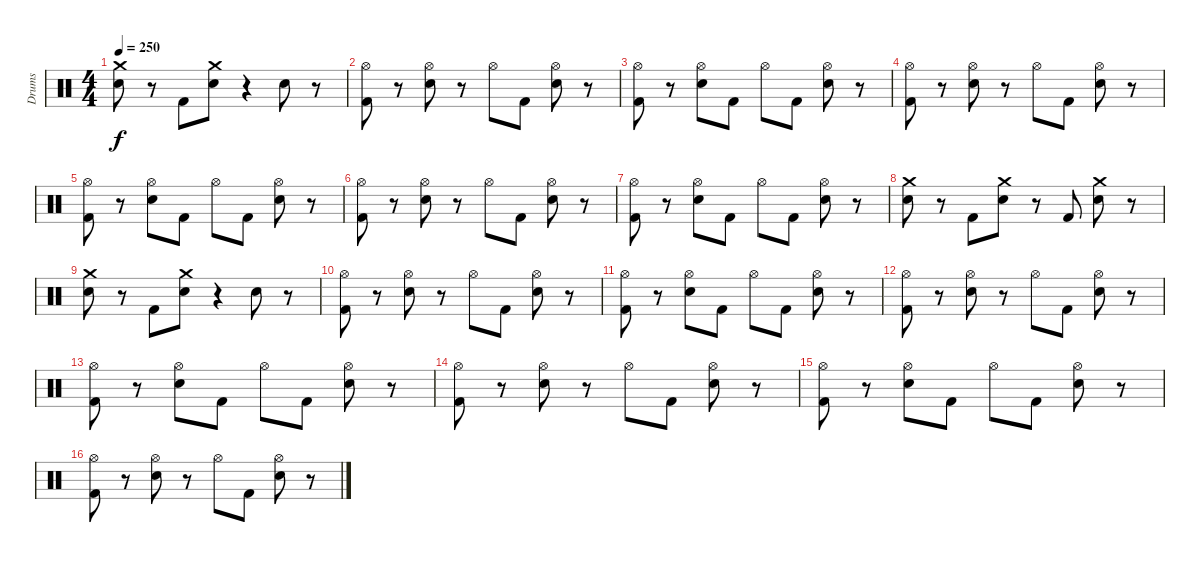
\track ("Drums" "Drums") {instrument percussion}
\staff {score}
\articulation defaults
\ts (4 4)
\tempo 250
\clef neutral
\ks c
("Electric Snare (hit)" "Crash medium (hit)").8{dy f} r.8 "Kick (hit) 2".8 ("Electric Snare (hit)" "Crash medium (hit)").8 r.4 "Electric Snare (hit)".8 r.8 |
("Hi-Hat (open)" "Kick (hit) 2").8 r.8 ("Hi-Hat (open)" "Electric Snare (hit)").8 r.8 "Hi-Hat (open)".8 "Kick (hit) 2".8 ("Hi-Hat (open)" "Electric Snare (hit)").8 r.8 |
("Hi-Hat (open)" "Kick (hit) 2").8 r.8 ("Hi-Hat (open)" "Electric Snare (hit)").8 "Kick (hit) 2".8 "Hi-Hat (open)".8 "Kick (hit) 2".8 ("Hi-Hat (open)" "Electric Snare (hit)").8 r.8 |
("Hi-Hat (open)" "Kick (hit) 2").8 r.8 ("Hi-Hat (open)" "Electric Snare (hit)").8 r.8 "Hi-Hat (open)".8 "Kick (hit) 2".8 ("Hi-Hat (open)" "Electric Snare (hit)").8 r.8 |
("Hi-Hat (open)" "Kick (hit) 2").8 r.8 ("Hi-Hat (open)" "Electric Snare (hit)").8 "Kick (hit) 2".8 "Hi-Hat (open)".8 "Kick (hit) 2".8 ("Hi-Hat (open)" "Electric Snare (hit)").8 r.8 |
("Hi-Hat (open)" "Kick (hit) 2").8 r.8 ("Hi-Hat (open)" "Electric Snare (hit)").8 r.8 "Hi-Hat (open)".8 "Kick (hit) 2".8 ("Hi-Hat (open)" "Electric Snare (hit)").8 r.8 |
("Hi-Hat (open)" "Kick (hit) 2").8 r.8 ("Hi-Hat (open)" "Electric Snare (hit)").8 "Kick (hit) 2".8 "Hi-Hat (open)".8 "Kick (hit) 2".8 ("Hi-Hat (open)" "Electric Snare (hit)").8 r.8 |
("Electric Snare (hit)" "Crash medium (hit)").8 r.8 "Kick (hit) 2".8 ("Electric Snare (hit)" "Crash medium (hit)").8 r.8 "Kick (hit) 2".8 ("Crash medium (hit)" "Electric Snare (hit)").8 r.8 |
("Electric Snare (hit)" "Crash medium (hit)").8 r.8 "Kick (hit) 2".8 ("Electric Snare (hit)" "Crash medium (hit)").8 r.4 "Electric Snare (hit)".8 r.8 |
("Hi-Hat (open)" "Kick (hit) 2").8 r.8 ("Hi-Hat (open)" "Electric Snare (hit)").8 r.8 "Hi-Hat (open)".8 "Kick (hit) 2".8 ("Hi-Hat (open)" "Electric Snare (hit)").8 r.8 |
("Hi-Hat (open)" "Kick (hit) 2").8 r.8 ("Hi-Hat (open)" "Electric Snare (hit)").8 "Kick (hit) 2".8 "Hi-Hat (open)".8 "Kick (hit) 2".8 ("Hi-Hat (open)" "Electric Snare (hit)").8 r.8 |
("Hi-Hat (open)" "Kick (hit) 2").8 r.8 ("Hi-Hat (open)" "Electric Snare (hit)").8 r.8 "Hi-Hat (open)".8 "Kick (hit) 2".8 ("Hi-Hat (open)" "Electric Snare (hit)").8 r.8 |
("Hi-Hat (open)" "Kick (hit) 2").8 r.8 ("Hi-Hat (open)" "Electric Snare (hit)").8 "Kick (hit) 2".8 "Hi-Hat (open)".8 "Kick (hit) 2".8 ("Hi-Hat (open)" "Electric Snare (hit)").8 r.8 |
("Hi-Hat (open)" "Kick (hit) 2").8 r.8 ("Hi-Hat (open)" "Electric Snare (hit)").8 r.8 "Hi-Hat (open)".8 "Kick (hit) 2".8 ("Hi-Hat (open)" "Electric Snare (hit)").8 r.8 |
("Hi-Hat (open)" "Kick (hit) 2").8 r.8 ("Hi-Hat (open)" "Electric Snare (hit)").8 "Kick (hit) 2".8 "Hi-Hat (open)".8 "Kick (hit) 2".8 ("Hi-Hat (open)" "Electric Snare (hit)").8 r.8 |
("Hi-Hat (open)" "Kick (hit) 2").8 r.8 ("Hi-Hat (open)" "Electric Snare (hit)").8 r.8 "Hi-Hat (open)".8 "Kick (hit) 2".8 ("Hi-Hat (open)" "Electric Snare (hit)").8 r.8
